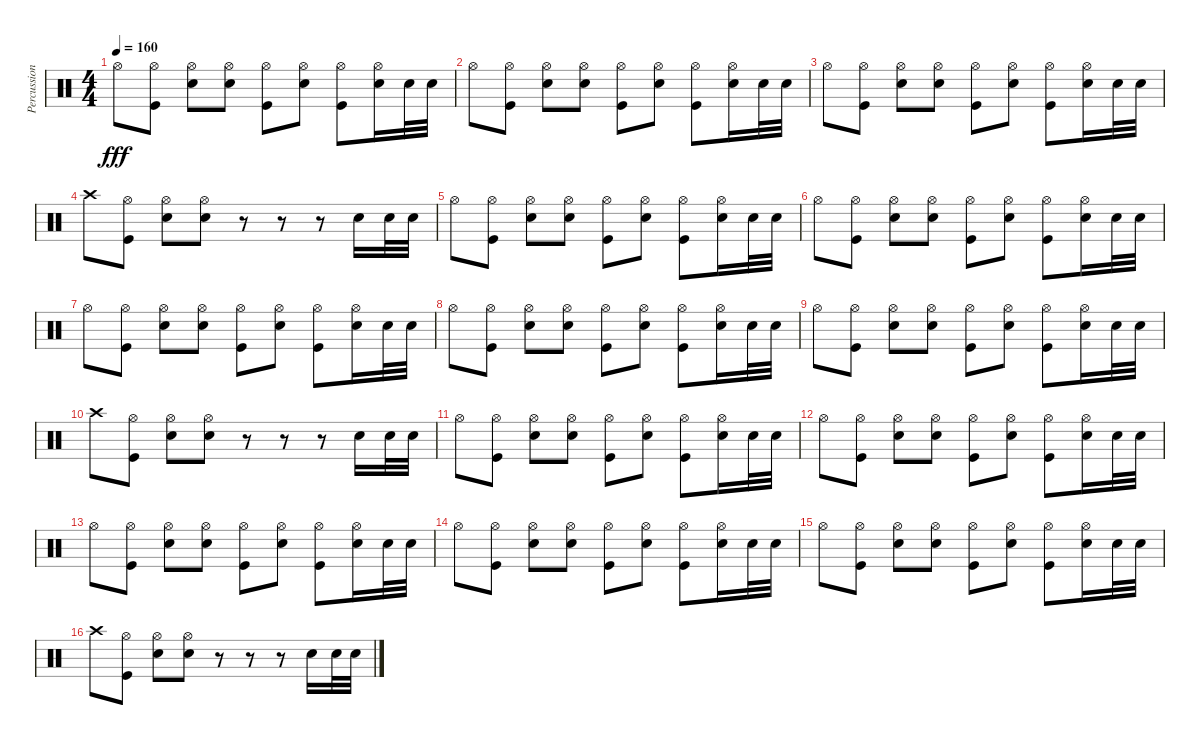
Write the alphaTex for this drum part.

\track ("Percussion" "Percussion") {instrument percussion}
\staff {score}
\articulation defaults
\ts (4 4)
\tempo 160
\clef neutral
\ks c "Hi-Hat (open)".8{dy fff}
("Kick (hit)" "Hi-Hat (open)").8 ("Snare (hit) 2" "Hi-Hat (open)").8 ("Snare (hit) 2" "Hi-Hat (open)").8 ("Kick (hit)" "Hi-Hat (open)").8 ("Snare (hit) 2" "Hi-Hat (open)").8 ("Kick (hit)" "Hi-Hat (open)").8 ("Snare (hit) 2" "Hi-Hat (open)").16 "Snare (hit) 2".32 "Snare (hit) 2".32 |
"Hi-Hat (open)".8 ("Kick (hit)" "Hi-Hat (open)").8 ("Snare (hit) 2" "Hi-Hat (open)").8 ("Snare (hit) 2" "Hi-Hat (open)").8 ("Kick (hit)" "Hi-Hat (open)").8 ("Snare (hit) 2" "Hi-Hat (open)").8 ("Kick (hit)" "Hi-Hat (open)").8 ("Snare (hit) 2" "Hi-Hat (open)").16 "Snare (hit) 2".32 "Snare (hit) 2".32 |
"Hi-Hat (open)".8 ("Kick (hit)" "Hi-Hat (open)").8 ("Snare (hit) 2" "Hi-Hat (open)").8 ("Snare (hit) 2" "Hi-Hat (open)").8 ("Kick (hit)" "Hi-Hat (open)").8 ("Snare (hit) 2" "Hi-Hat (open)").8 ("Kick (hit)" "Hi-Hat (open)").8 ("Snare (hit) 2" "Hi-Hat (open)").16 "Snare (hit) 2".32 "Snare (hit) 2".32 |
"Crash high (hit)".8 ("Kick (hit)" "Hi-Hat (open)").8 ("Snare (hit) 2" "Hi-Hat (open)").8 ("Snare (hit) 2" "Hi-Hat (open)").8 r.8 r.8 r.8 "Snare (hit) 2".16 "Snare (hit) 2".32 "Snare (hit) 2".32 |
"Hi-Hat (open)".8 ("Kick (hit)" "Hi-Hat (open)").8 ("Snare (hit) 2" "Hi-Hat (open)").8 ("Snare (hit) 2" "Hi-Hat (open)").8 ("Kick (hit)" "Hi-Hat (open)").8 ("Snare (hit) 2" "Hi-Hat (open)").8 ("Kick (hit)" "Hi-Hat (open)").8 ("Snare (hit) 2" "Hi-Hat (open)").16 "Snare (hit) 2".32 "Snare (hit) 2".32 |
"Hi-Hat (open)".8 ("Kick (hit)" "Hi-Hat (open)").8 ("Snare (hit) 2" "Hi-Hat (open)").8 ("Snare (hit) 2" "Hi-Hat (open)").8 ("Kick (hit)" "Hi-Hat (open)").8 ("Snare (hit) 2" "Hi-Hat (open)").8 ("Kick (hit)" "Hi-Hat (open)").8 ("Snare (hit) 2" "Hi-Hat (open)").16 "Snare (hit) 2".32 "Snare (hit) 2".32 |
"Hi-Hat (open)".8 ("Kick (hit)" "Hi-Hat (open)").8 ("Snare (hit) 2" "Hi-Hat (open)").8 ("Snare (hit) 2" "Hi-Hat (open)").8 ("Kick (hit)" "Hi-Hat (open)").8 ("Snare (hit) 2" "Hi-Hat (open)").8 ("Kick (hit)" "Hi-Hat (open)").8 ("Snare (hit) 2" "Hi-Hat (open)").16 "Snare (hit) 2".32 "Snare (hit) 2".32 |
"Hi-Hat (open)".8 ("Kick (hit)" "Hi-Hat (open)").8 ("Snare (hit) 2" "Hi-Hat (open)").8 ("Snare (hit) 2" "Hi-Hat (open)").8 ("Kick (hit)" "Hi-Hat (open)").8 ("Snare (hit) 2" "Hi-Hat (open)").8 ("Kick (hit)" "Hi-Hat (open)").8 ("Snare (hit) 2" "Hi-Hat (open)").16 "Snare (hit) 2".32 "Snare (hit) 2".32 |
"Hi-Hat (open)".8 ("Kick (hit)" "Hi-Hat (open)").8 ("Snare (hit) 2" "Hi-Hat (open)").8 ("Snare (hit) 2" "Hi-Hat (open)").8 ("Kick (hit)" "Hi-Hat (open)").8 ("Snare (hit) 2" "Hi-Hat (open)").8 ("Kick (hit)" "Hi-Hat (open)").8 ("Snare (hit) 2" "Hi-Hat (open)").16 "Snare (hit) 2".32 "Snare (hit) 2".32 |
"Crash high (hit)".8 ("Kick (hit)" "Hi-Hat (open)").8 ("Snare (hit) 2" "Hi-Hat (open)").8 ("Snare (hit) 2" "Hi-Hat (open)").8 r.8 r.8 r.8 "Snare (hit) 2".16 "Snare (hit) 2".32 "Snare (hit) 2".32 |
"Hi-Hat (open)".8 ("Kick (hit)" "Hi-Hat (open)").8 ("Snare (hit) 2" "Hi-Hat (open)").8 ("Snare (hit) 2" "Hi-Hat (open)").8 ("Kick (hit)" "Hi-Hat (open)").8 ("Snare (hit) 2" "Hi-Hat (open)").8 ("Kick (hit)" "Hi-Hat (open)").8 ("Snare (hit) 2" "Hi-Hat (open)").16 "Snare (hit) 2".32 "Snare (hit) 2".32 |
"Hi-Hat (open)".8 ("Kick (hit)" "Hi-Hat (open)").8 ("Snare (hit) 2" "Hi-Hat (open)").8 ("Snare (hit) 2" "Hi-Hat (open)").8 ("Kick (hit)" "Hi-Hat (open)").8 ("Snare (hit) 2" "Hi-Hat (open)").8 ("Kick (hit)" "Hi-Hat (open)").8 ("Snare (hit) 2" "Hi-Hat (open)").16 "Snare (hit) 2".32 "Snare (hit) 2".32 |
"Hi-Hat (open)".8 ("Kick (hit)" "Hi-Hat (open)").8 ("Snare (hit) 2" "Hi-Hat (open)").8 ("Snare (hit) 2" "Hi-Hat (open)").8 ("Kick (hit)" "Hi-Hat (open)").8 ("Snare (hit) 2" "Hi-Hat (open)").8 ("Kick (hit)" "Hi-Hat (open)").8 ("Snare (hit) 2" "Hi-Hat (open)").16 "Snare (hit) 2".32 "Snare (hit) 2".32 |
"Hi-Hat (open)".8 ("Kick (hit)" "Hi-Hat (open)").8 ("Snare (hit) 2" "Hi-Hat (open)").8 ("Snare (hit) 2" "Hi-Hat (open)").8 ("Kick (hit)" "Hi-Hat (open)").8 ("Snare (hit) 2" "Hi-Hat (open)").8 ("Kick (hit)" "Hi-Hat (open)").8 ("Snare (hit) 2" "Hi-Hat (open)").16 "Snare (hit) 2".32 "Snare (hit) 2".32 |
"Hi-Hat (open)".8 ("Kick (hit)" "Hi-Hat (open)").8 ("Snare (hit) 2" "Hi-Hat (open)").8 ("Snare (hit) 2" "Hi-Hat (open)").8 ("Kick (hit)" "Hi-Hat (open)").8 ("Snare (hit) 2" "Hi-Hat (open)").8 ("Kick (hit)" "Hi-Hat (open)").8 ("Snare (hit) 2" "Hi-Hat (open)").16 "Snare (hit) 2".32 "Snare (hit) 2".32 |
"Crash high (hit)".8 ("Kick (hit)" "Hi-Hat (open)").8 ("Snare (hit) 2" "Hi-Hat (open)").8 ("Snare (hit) 2" "Hi-Hat (open)").8 r.8 r.8 r.8 "Snare (hit) 2".16 "Snare (hit) 2".32 "Snare (hit) 2".32
